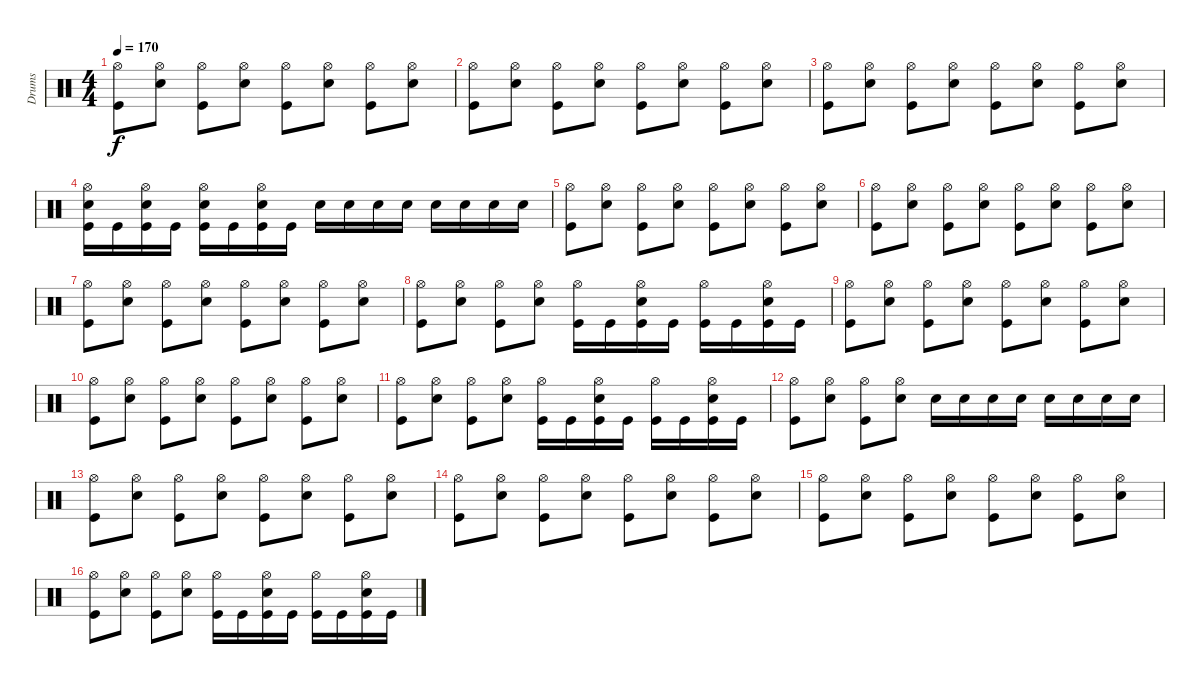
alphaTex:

\track ("Drums" "Drums") {instrument percussion}
\staff {score}
\articulation defaults
\ts (4 4)
\tempo 170
\clef neutral
\ks c
("Hi-Hat (open)" "Kick (hit)").8{dy f} ("Hi-Hat (open)" "Snare (hit) 2").8 ("Hi-Hat (open)" "Kick (hit)").8 ("Hi-Hat (open)" "Snare (hit) 2").8 ("Hi-Hat (open)" "Kick (hit)").8 ("Hi-Hat (open)" "Snare (hit) 2").8 ("Hi-Hat (open)" "Kick (hit)").8 ("Hi-Hat (open)" "Snare (hit) 2").8 |
("Hi-Hat (open)" "Kick (hit)").8 ("Hi-Hat (open)" "Snare (hit) 2").8 ("Hi-Hat (open)" "Kick (hit)").8 ("Hi-Hat (open)" "Snare (hit) 2").8 ("Hi-Hat (open)" "Kick (hit)").8 ("Hi-Hat (open)" "Snare (hit) 2").8 ("Hi-Hat (open)" "Kick (hit)").8 ("Hi-Hat (open)" "Snare (hit) 2").8 |
("Hi-Hat (open)" "Kick (hit)").8 ("Hi-Hat (open)" "Snare (hit) 2").8 ("Hi-Hat (open)" "Kick (hit)").8 ("Hi-Hat (open)" "Snare (hit) 2").8 ("Hi-Hat (open)" "Kick (hit)").8 ("Hi-Hat (open)" "Snare (hit) 2").8 ("Hi-Hat (open)" "Kick (hit)").8 ("Hi-Hat (open)" "Snare (hit) 2").8 |
("Hi-Hat (open)" "Snare (hit) 2" "Kick (hit)").16 "Kick (hit)".16 ("Hi-Hat (open)" "Snare (hit) 2" "Kick (hit)").16 "Kick (hit)".16 ("Hi-Hat (open)" "Snare (hit) 2" "Kick (hit)").16 "Kick (hit)".16 ("Hi-Hat (open)" "Snare (hit) 2" "Kick (hit)").16 "Kick (hit)".16 "Snare (hit) 2".16 "Snare (hit) 2".16 "Snare (hit) 2".16 "Snare (hit) 2".16 "Snare (hit) 2".16 "Snare (hit) 2".16 "Snare (hit) 2".16 "Snare (hit) 2".16 |
("Hi-Hat (open)" "Kick (hit)").8 ("Hi-Hat (open)" "Snare (hit) 2").8 ("Hi-Hat (open)" "Kick (hit)").8 ("Hi-Hat (open)" "Snare (hit) 2").8 ("Hi-Hat (open)" "Kick (hit)").8 ("Hi-Hat (open)" "Snare (hit) 2").8 ("Hi-Hat (open)" "Kick (hit)").8 ("Hi-Hat (open)" "Snare (hit) 2").8 |
("Hi-Hat (open)" "Kick (hit)").8 ("Hi-Hat (open)" "Snare (hit) 2").8 ("Hi-Hat (open)" "Kick (hit)").8 ("Hi-Hat (open)" "Snare (hit) 2").8 ("Hi-Hat (open)" "Kick (hit)").8 ("Hi-Hat (open)" "Snare (hit) 2").8 ("Hi-Hat (open)" "Kick (hit)").8 ("Hi-Hat (open)" "Snare (hit) 2").8 |
("Hi-Hat (open)" "Kick (hit)").8 ("Hi-Hat (open)" "Snare (hit) 2").8 ("Hi-Hat (open)" "Kick (hit)").8 ("Hi-Hat (open)" "Snare (hit) 2").8 ("Hi-Hat (open)" "Kick (hit)").8 ("Hi-Hat (open)" "Snare (hit) 2").8 ("Hi-Hat (open)" "Kick (hit)").8 ("Hi-Hat (open)" "Snare (hit) 2").8 |
("Hi-Hat (open)" "Kick (hit)").8 ("Hi-Hat (open)" "Snare (hit) 2").8 ("Hi-Hat (open)" "Kick (hit)").8 ("Hi-Hat (open)" "Snare (hit) 2").8 ("Hi-Hat (open)" "Kick (hit)").16 "Kick (hit)".16 ("Hi-Hat (open)" "Snare (hit) 2" "Kick (hit)").16 "Kick (hit)".16 ("Hi-Hat (open)" "Kick (hit)").16 "Kick (hit)".16 ("Hi-Hat (open)" "Snare (hit) 2" "Kick (hit)").16 "Kick (hit)".16 |
("Hi-Hat (open)" "Kick (hit)").8 ("Hi-Hat (open)" "Snare (hit) 2").8 ("Hi-Hat (open)" "Kick (hit)").8 ("Hi-Hat (open)" "Snare (hit) 2").8 ("Hi-Hat (open)" "Kick (hit)").8 ("Hi-Hat (open)" "Snare (hit) 2").8 ("Hi-Hat (open)" "Kick (hit)").8 ("Hi-Hat (open)" "Snare (hit) 2").8 |
("Hi-Hat (open)" "Kick (hit)").8 ("Hi-Hat (open)" "Snare (hit) 2").8 ("Hi-Hat (open)" "Kick (hit)").8 ("Hi-Hat (open)" "Snare (hit) 2").8 ("Hi-Hat (open)" "Kick (hit)").8 ("Hi-Hat (open)" "Snare (hit) 2").8 ("Hi-Hat (open)" "Kick (hit)").8 ("Hi-Hat (open)" "Snare (hit) 2").8 |
("Hi-Hat (open)" "Kick (hit)").8 ("Hi-Hat (open)" "Snare (hit) 2").8 ("Hi-Hat (open)" "Kick (hit)").8 ("Hi-Hat (open)" "Snare (hit) 2").8 ("Hi-Hat (open)" "Kick (hit)").16 "Kick (hit)".16 ("Hi-Hat (open)" "Snare (hit) 2" "Kick (hit)").16 "Kick (hit)".16 ("Hi-Hat (open)" "Kick (hit)").16 "Kick (hit)".16 ("Hi-Hat (open)" "Snare (hit) 2" "Kick (hit)").16 "Kick (hit)".16 |
("Hi-Hat (open)" "Kick (hit)").8 ("Hi-Hat (open)" "Snare (hit) 2").8 ("Hi-Hat (open)" "Kick (hit)").8 ("Hi-Hat (open)" "Snare (hit) 2").8 "Snare (hit) 2".16 "Snare (hit) 2".16 "Snare (hit) 2".16 "Snare (hit) 2".16 "Snare (hit) 2".16 "Snare (hit) 2".16 "Snare (hit) 2".16 "Snare (hit) 2".16 |
("Hi-Hat (open)" "Kick (hit)").8 ("Hi-Hat (open)" "Snare (hit) 2").8 ("Hi-Hat (open)" "Kick (hit)").8 ("Hi-Hat (open)" "Snare (hit) 2").8 ("Hi-Hat (open)" "Kick (hit)").8 ("Hi-Hat (open)" "Snare (hit) 2").8 ("Hi-Hat (open)" "Kick (hit)").8 ("Hi-Hat (open)" "Snare (hit) 2").8 |
("Hi-Hat (open)" "Kick (hit)").8 ("Hi-Hat (open)" "Snare (hit) 2").8 ("Hi-Hat (open)" "Kick (hit)").8 ("Hi-Hat (open)" "Snare (hit) 2").8 ("Hi-Hat (open)" "Kick (hit)").8 ("Hi-Hat (open)" "Snare (hit) 2").8 ("Hi-Hat (open)" "Kick (hit)").8 ("Hi-Hat (open)" "Snare (hit) 2").8 |
("Hi-Hat (open)" "Kick (hit)").8 ("Hi-Hat (open)" "Snare (hit) 2").8 ("Hi-Hat (open)" "Kick (hit)").8 ("Hi-Hat (open)" "Snare (hit) 2").8 ("Hi-Hat (open)" "Kick (hit)").8 ("Hi-Hat (open)" "Snare (hit) 2").8 ("Hi-Hat (open)" "Kick (hit)").8 ("Hi-Hat (open)" "Snare (hit) 2").8 |
("Hi-Hat (open)" "Kick (hit)").8 ("Hi-Hat (open)" "Snare (hit) 2").8 ("Hi-Hat (open)" "Kick (hit)").8 ("Hi-Hat (open)" "Snare (hit) 2").8 ("Hi-Hat (open)" "Kick (hit)").16 "Kick (hit)".16 ("Hi-Hat (open)" "Snare (hit) 2" "Kick (hit)").16 "Kick (hit)".16 ("Hi-Hat (open)" "Kick (hit)").16 "Kick (hit)".16 ("Hi-Hat (open)" "Snare (hit) 2" "Kick (hit)").16 "Kick (hit)".16
